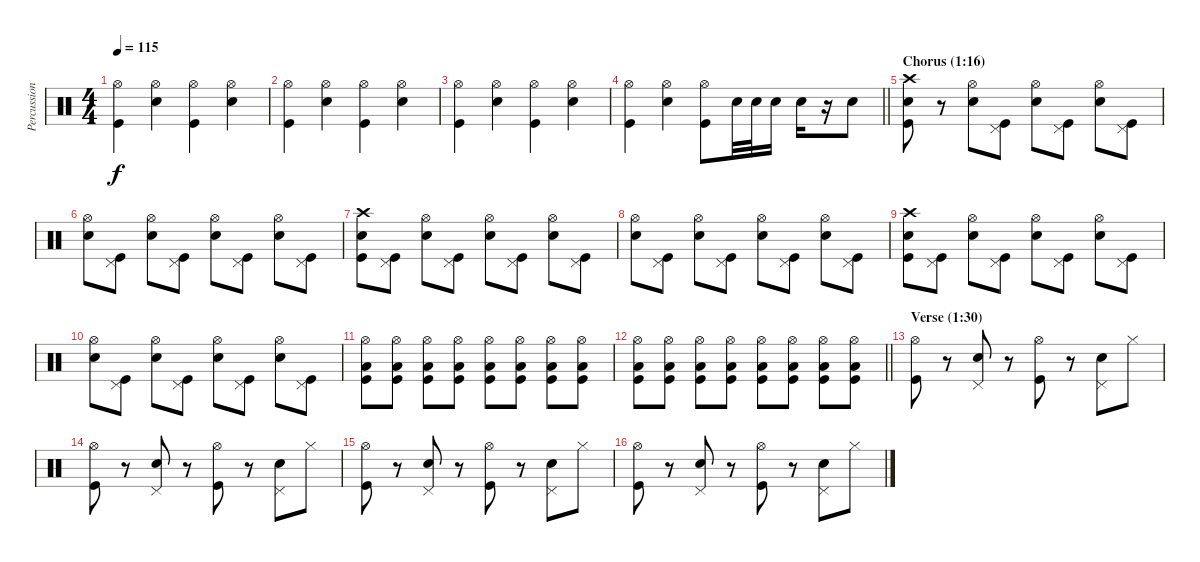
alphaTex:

\track ("Percussioni" "Percussion") {instrument percussion}
\staff {score}
\articulation defaults
\ts (4 4)
\tempo 115
\clef neutral
\ks c
("Hi-Hat (open)" "Kick (hit)").4{dy f} ("Hi-Hat (open)" "Electric Snare (hit)").4 ("Hi-Hat (open)" "Kick (hit)").4 ("Hi-Hat (open)" "Electric Snare (hit)").4 |
("Hi-Hat (open)" "Kick (hit)").4 ("Hi-Hat (open)" "Electric Snare (hit)").4 ("Hi-Hat (open)" "Kick (hit)").4 ("Hi-Hat (open)" "Electric Snare (hit)").4 |
("Hi-Hat (open)" "Kick (hit)").4 ("Hi-Hat (open)" "Electric Snare (hit)").4 ("Hi-Hat (open)" "Kick (hit)").4 ("Hi-Hat (open)" "Electric Snare (hit)").4 |
\barLineRight lightlight
("Hi-Hat (open)" "Kick (hit)").4 ("Hi-Hat (open)" "Electric Snare (hit)").4 ("Hi-Hat (open)" "Kick (hit)").8 "Electric Snare (hit)".32 "Electric Snare (hit)".32 "Electric Snare (hit)".16 "Electric Snare (hit)".16 r.16 "Electric Snare (hit)".8 |
\section ("" "Chorus (1:16)")
("Crash high (hit)" "Electric Snare (hit)" "Kick (hit)").8 r.8 ("Hi-Hat (open)" "Electric Snare (hit)").8 ("Pedal Hi-Hat (hit)" "Kick (hit)").8 ("Hi-Hat (open)" "Electric Snare (hit)").8 ("Pedal Hi-Hat (hit)" "Kick (hit)").8 ("Hi-Hat (open)" "Electric Snare (hit)").8 ("Pedal Hi-Hat (hit)" "Kick (hit)").8 |
("Hi-Hat (open)" "Electric Snare (hit)").8 ("Pedal Hi-Hat (hit)" "Kick (hit)").8 ("Hi-Hat (open)" "Electric Snare (hit)").8 ("Pedal Hi-Hat (hit)" "Kick (hit)").8 ("Hi-Hat (open)" "Electric Snare (hit)").8 ("Pedal Hi-Hat (hit)" "Kick (hit)").8 ("Hi-Hat (open)" "Electric Snare (hit)").8 ("Pedal Hi-Hat (hit)" "Kick (hit)").8 |
("Crash high (hit)" "Electric Snare (hit)" "Kick (hit)").8 ("Pedal Hi-Hat (hit)" "Kick (hit)").8 ("Hi-Hat (open)" "Electric Snare (hit)").8 ("Pedal Hi-Hat (hit)" "Kick (hit)").8 ("Hi-Hat (open)" "Electric Snare (hit)").8 ("Pedal Hi-Hat (hit)" "Kick (hit)").8 ("Hi-Hat (open)" "Electric Snare (hit)").8 ("Pedal Hi-Hat (hit)" "Kick (hit)").8 |
("Hi-Hat (open)" "Electric Snare (hit)").8 ("Pedal Hi-Hat (hit)" "Kick (hit)").8 ("Hi-Hat (open)" "Electric Snare (hit)").8 ("Pedal Hi-Hat (hit)" "Kick (hit)").8 ("Hi-Hat (open)" "Electric Snare (hit)").8 ("Pedal Hi-Hat (hit)" "Kick (hit)").8 ("Hi-Hat (open)" "Electric Snare (hit)").8 ("Pedal Hi-Hat (hit)" "Kick (hit)").8 |
("Crash high (hit)" "Electric Snare (hit)" "Kick (hit)").8 ("Pedal Hi-Hat (hit)" "Kick (hit)").8 ("Hi-Hat (open)" "Electric Snare (hit)").8 ("Pedal Hi-Hat (hit)" "Kick (hit)").8 ("Hi-Hat (open)" "Electric Snare (hit)").8 ("Pedal Hi-Hat (hit)" "Kick (hit)").8 ("Hi-Hat (open)" "Electric Snare (hit)").8 ("Pedal Hi-Hat (hit)" "Kick (hit)").8 |
("Hi-Hat (open)" "Electric Snare (hit)").8 ("Pedal Hi-Hat (hit)" "Kick (hit)").8 ("Hi-Hat (open)" "Electric Snare (hit)").8 ("Pedal Hi-Hat (hit)" "Kick (hit)").8 ("Hi-Hat (open)" "Electric Snare (hit)").8 ("Pedal Hi-Hat (hit)" "Kick (hit)").8 ("Hi-Hat (open)" "Electric Snare (hit)").8 ("Pedal Hi-Hat (hit)" "Kick (hit)").8 |
("Hi-Hat (open)" "Low Tom (hit)" "Kick (hit)").8 ("Hi-Hat (open)" "Low Tom (hit)" "Kick (hit)").8 ("Hi-Hat (open)" "Low Tom (hit)" "Kick (hit)").8 ("Hi-Hat (open)" "Low Tom (hit)" "Kick (hit)").8 ("Hi-Hat (open)" "Low Tom (hit)" "Kick (hit)").8 ("Hi-Hat (open)" "Low Tom (hit)" "Kick (hit)").8 ("Hi-Hat (open)" "Low Tom (hit)" "Kick (hit)").8 ("Hi-Hat (open)" "Low Tom (hit)" "Kick (hit)").8 |
\barLineRight lightlight
("Hi-Hat (open)" "Low Tom (hit)" "Kick (hit)").8 ("Hi-Hat (open)" "Low Tom (hit)" "Kick (hit)").8 ("Hi-Hat (open)" "Low Tom (hit)" "Kick (hit)").8 ("Hi-Hat (open)" "Low Tom (hit)" "Kick (hit)").8 ("Hi-Hat (open)" "Low Tom (hit)" "Kick (hit)").8 ("Hi-Hat (open)" "Low Tom (hit)" "Kick (hit)").8 ("Hi-Hat (open)" "Low Tom (hit)" "Kick (hit)").8 ("Hi-Hat (open)" "Low Tom (hit)" "Kick (hit)").8 |
\section ("" "Verse (1:30)")
("Hi-Hat (open)" "Kick (hit)").8 r.8 ("Pedal Hi-Hat (hit)" "Electric Snare (hit)").8 r.8 ("Hi-Hat (open)" "Kick (hit)").8 r.8 ("Pedal Hi-Hat (hit)" "Electric Snare (hit)").8 "Hi-Hat (closed)".8 |
("Hi-Hat (open)" "Kick (hit)").8 r.8 ("Pedal Hi-Hat (hit)" "Electric Snare (hit)").8 r.8 ("Hi-Hat (open)" "Kick (hit)").8 r.8 ("Pedal Hi-Hat (hit)" "Electric Snare (hit)").8 "Hi-Hat (closed)".8 |
("Hi-Hat (open)" "Kick (hit)").8 r.8 ("Pedal Hi-Hat (hit)" "Electric Snare (hit)").8 r.8 ("Hi-Hat (open)" "Kick (hit)").8 r.8 ("Pedal Hi-Hat (hit)" "Electric Snare (hit)").8 "Hi-Hat (closed)".8 |
("Hi-Hat (open)" "Kick (hit)").8 r.8 ("Pedal Hi-Hat (hit)" "Electric Snare (hit)").8 r.8 ("Hi-Hat (open)" "Kick (hit)").8 r.8 ("Pedal Hi-Hat (hit)" "Electric Snare (hit)").8 "Hi-Hat (closed)".8
